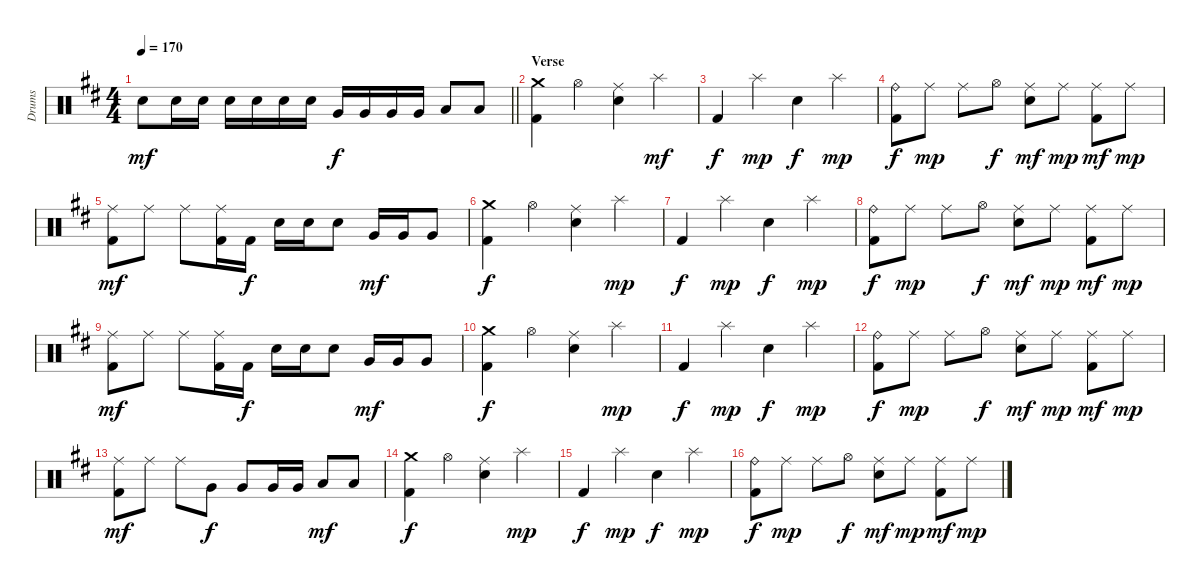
\track ("Drums" "Drums") {instrument percussion}
\staff {score}
\articulation defaults
\ts (4 4)
\tempo 170
\clef neutral
\barLineRight lightlight
\ks d "Snare (hit) 2".8{dy mf} "Snare (hit) 2".16 "Snare (hit) 2".16 "Snare (hit) 2".16 "Snare (hit) 2".16 "Snare (hit) 2".16 "Snare (hit) 2".16 "Very Low Tom (hit)".16{dy f} "Very Low Tom (hit)".16 "Very Low Tom (hit)".16 "Very Low Tom (hit)".16 "Low Floor Tom (hit)".8 "Low Floor Tom (hit)".8
|
\section ("" "Verse")
("Crash medium (hit)" "Kick (hit) 2").4 "Hi-Hat (open)".4 ("Ride (middle)" "Snare (hit) 2").4 "Splash (hit)".4{dy mf} |
"Kick (hit) 2".4{dy f} "Splash (hit)".4{dy mp} "Snare (hit) 2".4{dy f} "Splash (hit)".4{dy mp} |
("Ride (bell)" "Kick (hit) 2").8{dy f} "Ride (middle)".8{dy mp} "Ride (middle)".8 "Hi-Hat (open)".8{dy f} ("Ride (middle)" "Snare (hit) 2").8{dy mf} "Ride (middle)".8{dy mp} ("Ride (middle)" "Kick (hit) 2").8{dy mf} "Ride (middle)".8{dy mp} |
("Ride (middle)" "Kick (hit) 2").8{dy mf} "Ride (middle)".8 "Ride (middle)".8 ("Ride (middle)" "Kick (hit) 2").16 "Kick (hit) 2".16{dy f} "Snare (hit) 2".16 "Snare (hit) 2".16 "Snare (hit) 2".8 "Very Low Tom (hit)".16{dy mf} "Very Low Tom (hit)".16 "Very Low Tom (hit)".8 |
("Crash medium (hit)" "Kick (hit) 2").4{dy f} "Hi-Hat (open)".4 ("Ride (middle)" "Snare (hit) 2").4 "Splash (hit)".4{dy mp} |
"Kick (hit) 2".4{dy f} "Splash (hit)".4{dy mp} "Snare (hit) 2".4{dy f} "Splash (hit)".4{dy mp} |
("Ride (bell)" "Kick (hit) 2").8{dy f} "Ride (middle)".8{dy mp} "Ride (middle)".8 "Hi-Hat (open)".8{dy f} ("Ride (middle)" "Snare (hit) 2").8{dy mf} "Ride (middle)".8{dy mp} ("Ride (middle)" "Kick (hit) 2").8{dy mf} "Ride (middle)".8{dy mp} |
("Ride (middle)" "Kick (hit) 2").8{dy mf} "Ride (middle)".8 "Ride (middle)".8 ("Ride (middle)" "Kick (hit) 2").16 "Kick (hit) 2".16{dy f} "Snare (hit) 2".16 "Snare (hit) 2".16 "Snare (hit) 2".8 "Very Low Tom (hit)".16{dy mf} "Very Low Tom (hit)".16 "Very Low Tom (hit)".8 |
("Crash medium (hit)" "Kick (hit) 2").4{dy f} "Hi-Hat (open)".4 ("Ride (middle)" "Snare (hit) 2").4 "Splash (hit)".4{dy mp} |
"Kick (hit) 2".4{dy f} "Splash (hit)".4{dy mp} "Snare (hit) 2".4{dy f} "Splash (hit)".4{dy mp} |
("Ride (bell)" "Kick (hit) 2").8{dy f} "Ride (middle)".8{dy mp} "Ride (middle)".8 "Hi-Hat (open)".8{dy f} ("Ride (middle)" "Snare (hit) 2").8{dy mf} "Ride (middle)".8{dy mp} ("Ride (middle)" "Kick (hit) 2").8{dy mf} "Ride (middle)".8{dy mp} |
("Ride (middle)" "Kick (hit) 2").8{dy mf} "Ride (middle)".8 "Ride (middle)".8 "Very Low Tom (hit)".8{dy f} "Very Low Tom (hit)".8 "Very Low Tom (hit)".16 "Very Low Tom (hit)".16 "Low Floor Tom (hit)".8{dy mf} "Low Floor Tom (hit)".8 |
("Crash medium (hit)" "Kick (hit) 2").4{dy f} "Hi-Hat (open)".4 ("Ride (middle)" "Snare (hit) 2").4 "Splash (hit)".4{dy mp} |
"Kick (hit) 2".4{dy f} "Splash (hit)".4{dy mp} "Snare (hit) 2".4{dy f} "Splash (hit)".4{dy mp} |
("Ride (bell)" "Kick (hit) 2").8{dy f} "Ride (middle)".8{dy mp} "Ride (middle)".8 "Hi-Hat (open)".8{dy f} ("Ride (middle)" "Snare (hit) 2").8{dy mf} "Ride (middle)".8{dy mp} ("Ride (middle)" "Kick (hit) 2").8{dy mf} "Ride (middle)".8{dy mp}
